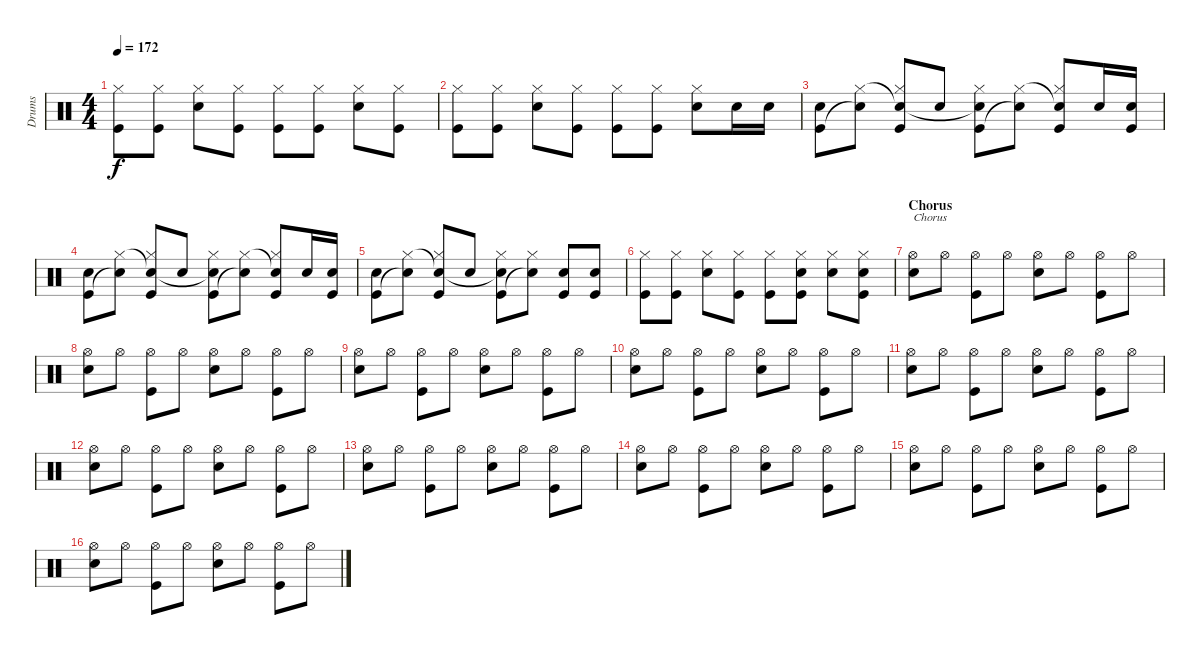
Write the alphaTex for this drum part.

\track ("Drums" "Drums") {instrument percussion}
\staff {score}
\articulation defaults
\ts (4 4)
\tempo 172
\clef neutral
\ks c
("Kick (hit)" "Hi-Hat (closed)").8{dy f} ("Kick (hit)" "Hi-Hat (closed)").8 ("Snare (hit) 2" "Hi-Hat (closed)").8 ("Kick (hit)" "Hi-Hat (closed)").8 ("Kick (hit)" "Hi-Hat (closed)").8 ("Kick (hit)" "Hi-Hat (closed)").8 ("Snare (hit) 2" "Hi-Hat (closed)").8 ("Kick (hit)" "Hi-Hat (closed)").8 |
("Kick (hit)" "Hi-Hat (closed)").8 ("Kick (hit)" "Hi-Hat (closed)").8 ("Snare (hit) 2" "Hi-Hat (closed)").8 ("Kick (hit)" "Hi-Hat (closed)").8 ("Kick (hit)" "Hi-Hat (closed)").8 ("Kick (hit)" "Hi-Hat (closed)").8 ("Snare (hit) 2" "Hi-Hat (closed)").8 "Snare (hit) 2".16 "Snare (hit) 2".16 |
("Kick (hit)" "Snare (hit) 2").8 ("Snare (hit)"{t} "Hi-Hat (closed)").8 ("Kick (hit)" "Snare (hit) 2"{t} "Hi-Hat (closed)").8 "Snare (hit) 2".8 ("Kick (hit)" "Snare (hit)"{t} "Hi-Hat (closed)").8 ("Snare (hit)"{t} "Hi-Hat (closed)").8 ("Kick (hit)" "Snare (hit)"{t} "Hi-Hat (closed)").8 "Snare (hit) 2".16 ("Kick (hit)" "Snare (hit) 2").16 |
("Kick (hit)" "Snare (hit) 2").8 ("Snare (hit)"{t} "Hi-Hat (closed)").8 ("Kick (hit)" "Snare (hit) 2"{t} "Hi-Hat (closed)").8 "Snare (hit) 2".8 ("Kick (hit)" "Snare (hit)"{t} "Hi-Hat (closed)").8 ("Snare (hit)"{t} "Hi-Hat (closed)").8 ("Kick (hit)" "Snare (hit)"{t} "Hi-Hat (closed)").8 "Snare (hit) 2".16 ("Kick (hit)" "Snare (hit) 2").16 |
("Kick (hit)" "Snare (hit) 2").8 ("Snare (hit)"{t} "Hi-Hat (closed)").8 ("Kick (hit)" "Snare (hit) 2"{t} "Hi-Hat (closed)").8 "Snare (hit) 2".8 ("Kick (hit)" "Snare (hit)"{t} "Hi-Hat (closed)").8 ("Snare (hit)"{t} "Hi-Hat (closed)").8 ("Kick (hit)" "Snare (hit) 2").8 ("Kick (hit)" "Snare (hit) 2").8 |
("Kick (hit)" "Hi-Hat (closed)").8 ("Kick (hit)" "Hi-Hat (closed)").8 ("Snare (hit) 2" "Hi-Hat (closed)").8 ("Kick (hit)" "Hi-Hat (closed)").8 ("Kick (hit)" "Hi-Hat (closed)").8 ("Kick (hit)" "Snare (hit) 2" "Hi-Hat (closed)").8 ("Snare (hit) 2" "Hi-Hat (closed)").8 ("Kick (hit)" "Snare (hit) 2" "Hi-Hat (closed)").8 |
\section ("" "Chorus")
("Snare (hit) 2" "Hi-Hat (open)").8{txt "Chorus"} "Hi-Hat (open)".8 ("Kick (hit)" "Hi-Hat (open)").8 "Hi-Hat (open)".8 ("Snare (hit) 2" "Hi-Hat (open)").8 "Hi-Hat (open)".8 ("Kick (hit)" "Hi-Hat (open)").8 "Hi-Hat (open)".8 |
("Snare (hit) 2" "Hi-Hat (open)").8 "Hi-Hat (open)".8 ("Kick (hit)" "Hi-Hat (open)").8 "Hi-Hat (open)".8 ("Snare (hit) 2" "Hi-Hat (open)").8 "Hi-Hat (open)".8 ("Kick (hit)" "Hi-Hat (open)").8 "Hi-Hat (open)".8 |
("Snare (hit) 2" "Hi-Hat (open)").8 "Hi-Hat (open)".8 ("Kick (hit)" "Hi-Hat (open)").8 "Hi-Hat (open)".8 ("Snare (hit) 2" "Hi-Hat (open)").8 "Hi-Hat (open)".8 ("Kick (hit)" "Hi-Hat (open)").8 "Hi-Hat (open)".8 |
("Snare (hit) 2" "Hi-Hat (open)").8 "Hi-Hat (open)".8 ("Kick (hit)" "Hi-Hat (open)").8 "Hi-Hat (open)".8 ("Snare (hit) 2" "Hi-Hat (open)").8 "Hi-Hat (open)".8 ("Kick (hit)" "Hi-Hat (open)").8 "Hi-Hat (open)".8 |
("Snare (hit) 2" "Hi-Hat (open)").8 "Hi-Hat (open)".8 ("Kick (hit)" "Hi-Hat (open)").8 "Hi-Hat (open)".8 ("Snare (hit) 2" "Hi-Hat (open)").8 "Hi-Hat (open)".8 ("Kick (hit)" "Hi-Hat (open)").8 "Hi-Hat (open)".8 |
("Snare (hit) 2" "Hi-Hat (open)").8 "Hi-Hat (open)".8 ("Kick (hit)" "Hi-Hat (open)").8 "Hi-Hat (open)".8 ("Snare (hit) 2" "Hi-Hat (open)").8 "Hi-Hat (open)".8 ("Kick (hit)" "Hi-Hat (open)").8 "Hi-Hat (open)".8 |
("Snare (hit) 2" "Hi-Hat (open)").8 "Hi-Hat (open)".8 ("Kick (hit)" "Hi-Hat (open)").8 "Hi-Hat (open)".8 ("Snare (hit) 2" "Hi-Hat (open)").8 "Hi-Hat (open)".8 ("Kick (hit)" "Hi-Hat (open)").8 "Hi-Hat (open)".8 |
("Snare (hit) 2" "Hi-Hat (open)").8 "Hi-Hat (open)".8 ("Kick (hit)" "Hi-Hat (open)").8 "Hi-Hat (open)".8 ("Snare (hit) 2" "Hi-Hat (open)").8 "Hi-Hat (open)".8 ("Kick (hit)" "Hi-Hat (open)").8 "Hi-Hat (open)".8 |
("Snare (hit) 2" "Hi-Hat (open)").8 "Hi-Hat (open)".8 ("Kick (hit)" "Hi-Hat (open)").8 "Hi-Hat (open)".8 ("Snare (hit) 2" "Hi-Hat (open)").8 "Hi-Hat (open)".8 ("Kick (hit)" "Hi-Hat (open)").8 "Hi-Hat (open)".8 |
("Snare (hit) 2" "Hi-Hat (open)").8 "Hi-Hat (open)".8 ("Kick (hit)" "Hi-Hat (open)").8 "Hi-Hat (open)".8 ("Snare (hit) 2" "Hi-Hat (open)").8 "Hi-Hat (open)".8 ("Kick (hit)" "Hi-Hat (open)").8 "Hi-Hat (open)".8
